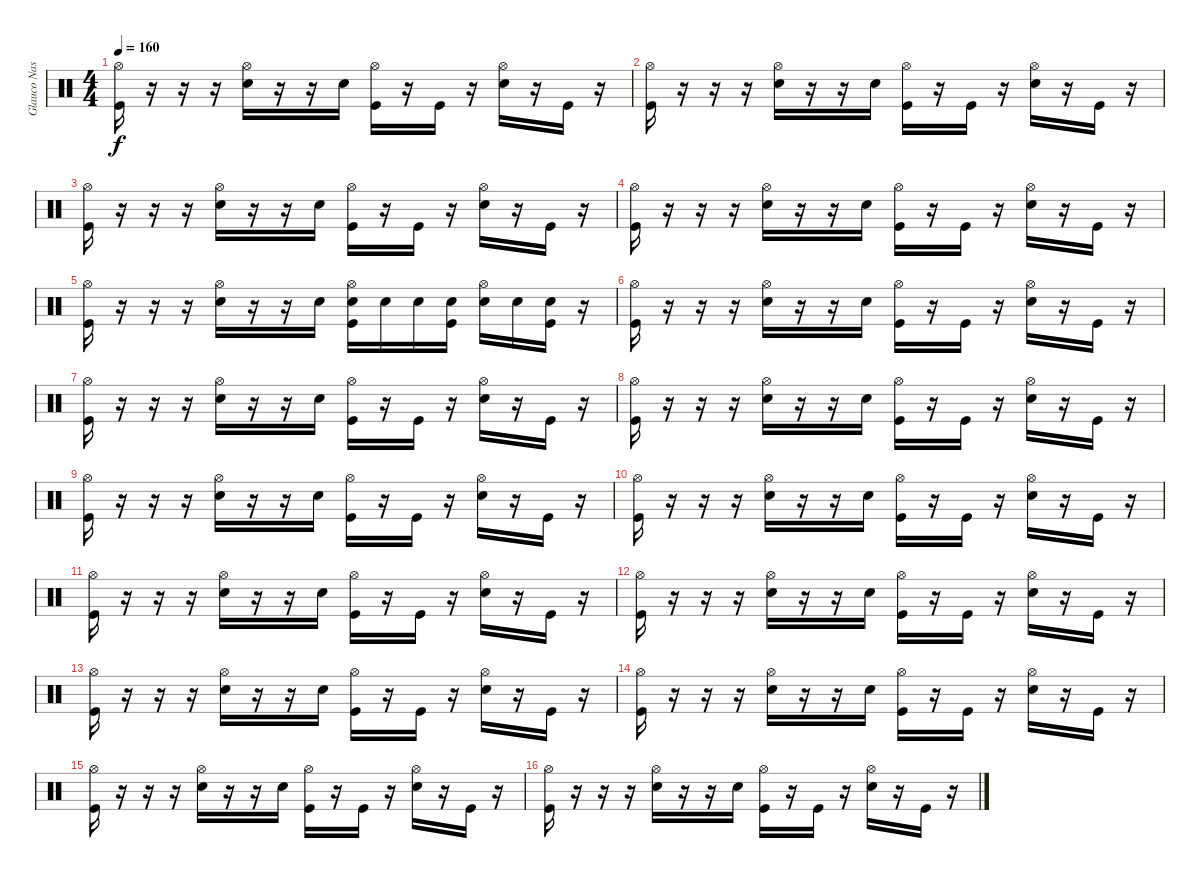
\track ("Glauco Nastácia" "Glauco Nas") {instrument percussion}
\staff {score}
\articulation defaults
\ts (4 4)
\tempo 160
\clef neutral
\ks c
("Hi-Hat (open)" "Kick (hit)").16{dy f} r.16 r.16 r.16 ("Hi-Hat (open)" "Electric Snare (hit)").16 r.16 r.16 "Electric Snare (hit)".16 ("Hi-Hat (open)" "Kick (hit)").16 r.16 "Kick (hit)".16 r.16 ("Hi-Hat (open)" "Electric Snare (hit)").16 r.16 "Kick (hit)".16 r.16 |
("Hi-Hat (open)" "Kick (hit)").16 r.16 r.16 r.16 ("Hi-Hat (open)" "Electric Snare (hit)").16 r.16 r.16 "Electric Snare (hit)".16 ("Hi-Hat (open)" "Kick (hit)").16 r.16 "Kick (hit)".16 r.16 ("Hi-Hat (open)" "Electric Snare (hit)").16 r.16 "Kick (hit)".16 r.16 |
("Hi-Hat (open)" "Kick (hit)").16 r.16 r.16 r.16 ("Hi-Hat (open)" "Electric Snare (hit)").16 r.16 r.16 "Electric Snare (hit)".16 ("Hi-Hat (open)" "Kick (hit)").16 r.16 "Kick (hit)".16 r.16 ("Hi-Hat (open)" "Electric Snare (hit)").16 r.16 "Kick (hit)".16 r.16 |
("Hi-Hat (open)" "Kick (hit)").16 r.16 r.16 r.16 ("Hi-Hat (open)" "Electric Snare (hit)").16 r.16 r.16 "Electric Snare (hit)".16 ("Hi-Hat (open)" "Kick (hit)").16 r.16 "Kick (hit)".16 r.16 ("Hi-Hat (open)" "Electric Snare (hit)").16 r.16 "Kick (hit)".16 r.16 |
("Hi-Hat (open)" "Kick (hit)").16 r.16 r.16 r.16 ("Hi-Hat (open)" "Electric Snare (hit)").16 r.16 r.16 "Electric Snare (hit)".16 ("Hi-Hat (open)" "Electric Snare (hit)" "Kick (hit)").16 "Electric Snare (hit)".16 "Electric Snare (hit)".16 ("Electric Snare (hit)" "Kick (hit)").16 ("Hi-Hat (open)" "Electric Snare (hit)").16 "Electric Snare (hit)".16 ("Electric Snare (hit)" "Kick (hit)").16 r.16 |
("Hi-Hat (open)" "Kick (hit)").16 r.16 r.16 r.16 ("Hi-Hat (open)" "Electric Snare (hit)").16 r.16 r.16 "Electric Snare (hit)".16 ("Hi-Hat (open)" "Kick (hit)").16 r.16 "Kick (hit)".16 r.16 ("Hi-Hat (open)" "Electric Snare (hit)").16 r.16 "Kick (hit)".16 r.16 |
("Hi-Hat (open)" "Kick (hit)").16 r.16 r.16 r.16 ("Hi-Hat (open)" "Electric Snare (hit)").16 r.16 r.16 "Electric Snare (hit)".16 ("Hi-Hat (open)" "Kick (hit)").16 r.16 "Kick (hit)".16 r.16 ("Hi-Hat (open)" "Electric Snare (hit)").16 r.16 "Kick (hit)".16 r.16 |
("Hi-Hat (open)" "Kick (hit)").16 r.16 r.16 r.16 ("Hi-Hat (open)" "Electric Snare (hit)").16 r.16 r.16 "Electric Snare (hit)".16 ("Hi-Hat (open)" "Kick (hit)").16 r.16 "Kick (hit)".16 r.16 ("Hi-Hat (open)" "Electric Snare (hit)").16 r.16 "Kick (hit)".16 r.16 |
("Hi-Hat (open)" "Kick (hit)").16 r.16 r.16 r.16 ("Hi-Hat (open)" "Electric Snare (hit)").16 r.16 r.16 "Electric Snare (hit)".16 ("Hi-Hat (open)" "Kick (hit)").16 r.16 "Kick (hit)".16 r.16 ("Hi-Hat (open)" "Electric Snare (hit)").16 r.16 "Kick (hit)".16 r.16 |
("Hi-Hat (open)" "Kick (hit)").16 r.16 r.16 r.16 ("Hi-Hat (open)" "Electric Snare (hit)").16 r.16 r.16 "Electric Snare (hit)".16 ("Hi-Hat (open)" "Kick (hit)").16 r.16 "Kick (hit)".16 r.16 ("Hi-Hat (open)" "Electric Snare (hit)").16 r.16 "Kick (hit)".16 r.16 |
("Hi-Hat (open)" "Kick (hit)").16 r.16 r.16 r.16 ("Hi-Hat (open)" "Electric Snare (hit)").16 r.16 r.16 "Electric Snare (hit)".16 ("Hi-Hat (open)" "Kick (hit)").16 r.16 "Kick (hit)".16 r.16 ("Hi-Hat (open)" "Electric Snare (hit)").16 r.16 "Kick (hit)".16 r.16 |
("Hi-Hat (open)" "Kick (hit)").16 r.16 r.16 r.16 ("Hi-Hat (open)" "Electric Snare (hit)").16 r.16 r.16 "Electric Snare (hit)".16 ("Hi-Hat (open)" "Kick (hit)").16 r.16 "Kick (hit)".16 r.16 ("Hi-Hat (open)" "Electric Snare (hit)").16 r.16 "Kick (hit)".16 r.16 |
("Hi-Hat (open)" "Kick (hit)").16 r.16 r.16 r.16 ("Hi-Hat (open)" "Electric Snare (hit)").16 r.16 r.16 "Electric Snare (hit)".16 ("Hi-Hat (open)" "Kick (hit)").16 r.16 "Kick (hit)".16 r.16 ("Hi-Hat (open)" "Electric Snare (hit)").16 r.16 "Kick (hit)".16 r.16 |
("Hi-Hat (open)" "Kick (hit)").16 r.16 r.16 r.16 ("Hi-Hat (open)" "Electric Snare (hit)").16 r.16 r.16 "Electric Snare (hit)".16 ("Hi-Hat (open)" "Kick (hit)").16 r.16 "Kick (hit)".16 r.16 ("Hi-Hat (open)" "Electric Snare (hit)").16 r.16 "Kick (hit)".16 r.16 |
("Hi-Hat (open)" "Kick (hit)").16 r.16 r.16 r.16 ("Hi-Hat (open)" "Electric Snare (hit)").16 r.16 r.16 "Electric Snare (hit)".16 ("Hi-Hat (open)" "Kick (hit)").16 r.16 "Kick (hit)".16 r.16 ("Hi-Hat (open)" "Electric Snare (hit)").16 r.16 "Kick (hit)".16 r.16 |
("Hi-Hat (open)" "Kick (hit)").16 r.16 r.16 r.16 ("Hi-Hat (open)" "Electric Snare (hit)").16 r.16 r.16 "Electric Snare (hit)".16 ("Hi-Hat (open)" "Kick (hit)").16 r.16 "Kick (hit)".16 r.16 ("Hi-Hat (open)" "Electric Snare (hit)").16 r.16 "Kick (hit)".16 r.16
